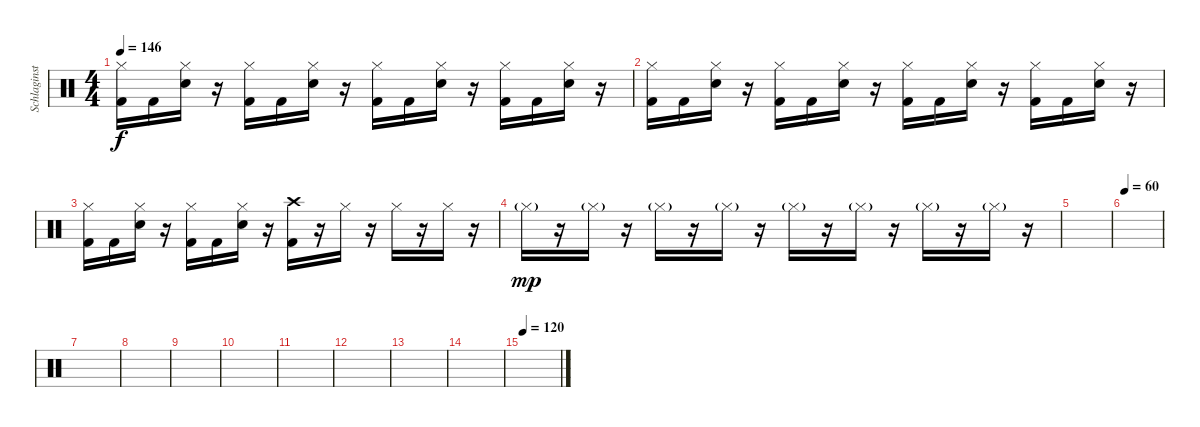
\track ("Schlaginstrumente - Auswahl" "Schlaginst") {instrument percussion}
\staff {score}
\articulation defaults
\ts (4 4)
\tempo 146
\clef neutral
\ks c
("Hi-Hat (closed)" "Kick (hit) 2").16{dy f} "Kick (hit) 2".16 ("Hi-Hat (closed)" "Snare (hit) 2").16 r.16 ("Hi-Hat (closed)" "Kick (hit) 2").16 "Kick (hit) 2".16 ("Hi-Hat (closed)" "Snare (hit) 2").16 r.16 ("Hi-Hat (closed)" "Kick (hit) 2").16 "Kick (hit) 2".16 ("Hi-Hat (closed)" "Snare (hit) 2").16 r.16 ("Hi-Hat (closed)" "Kick (hit) 2").16 "Kick (hit) 2".16 ("Hi-Hat (closed)" "Snare (hit) 2").16 r.16 |
("Hi-Hat (closed)" "Kick (hit) 2").16 "Kick (hit) 2".16 ("Hi-Hat (closed)" "Snare (hit) 2").16 r.16 ("Hi-Hat (closed)" "Kick (hit) 2").16 "Kick (hit) 2".16 ("Hi-Hat (closed)" "Snare (hit) 2").16 r.16 ("Hi-Hat (closed)" "Kick (hit) 2").16 "Kick (hit) 2".16 ("Hi-Hat (closed)" "Snare (hit) 2").16 r.16 ("Hi-Hat (closed)" "Kick (hit) 2").16 "Kick (hit) 2".16 ("Hi-Hat (closed)" "Snare (hit) 2").16 r.16 |
("Hi-Hat (closed)" "Kick (hit) 2").16 "Kick (hit) 2".16 ("Hi-Hat (closed)" "Snare (hit) 2").16 r.16 ("Hi-Hat (closed)" "Kick (hit) 2").16 "Kick (hit) 2".16 ("Hi-Hat (closed)" "Snare (hit) 2").16 r.16 ("Crash high (hit)" "Kick (hit) 2").16 r.16 "Hi-Hat (closed)".16 r.16 "Hi-Hat (closed)".16 r.16 "Hi-Hat (closed)".16 r.16 |
"Hi-Hat (closed)"{g}.16{dy mp} r.16 "Hi-Hat (closed)"{g}.16 r.16 "Hi-Hat (closed)"{g}.16 r.16 "Hi-Hat (closed)"{g}.16 r.16 "Hi-Hat (closed)"{g}.16 r.16 "Hi-Hat (closed)"{g}.16 r.16 "Hi-Hat (closed)"{g}.16 r.16 "Hi-Hat (closed)"{g}.16 r.16 |
|
\tempo 60
|
|
|
|
|
|
|
|
|
\tempo 120
